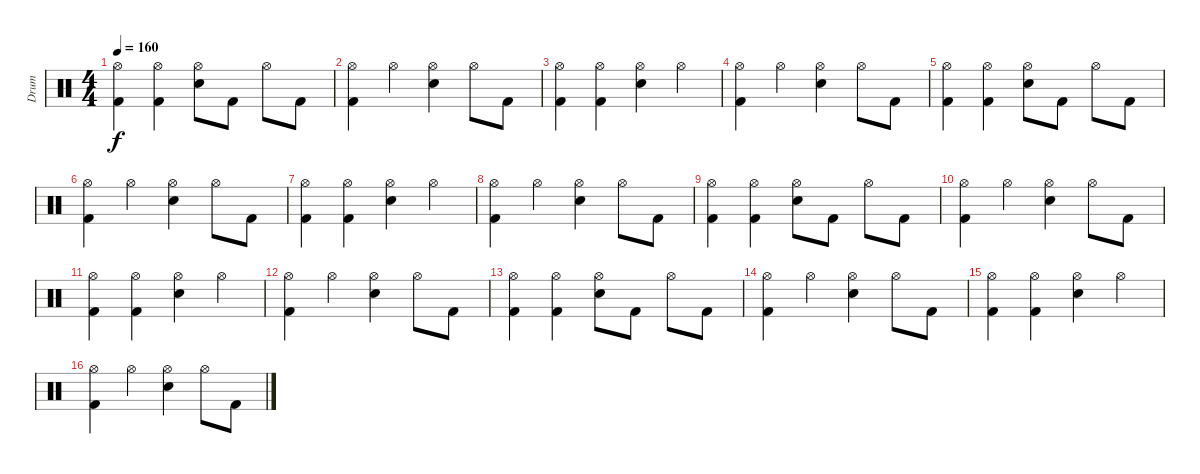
\track ("Drum" "Drum") {instrument percussion}
\staff {score}
\articulation defaults
\ts (4 4)
\tempo 160
\clef neutral
\ks c
("Hi-Hat (open)" "Kick (hit) 2").4{dy f} ("Hi-Hat (open)" "Kick (hit) 2").4 ("Hi-Hat (open)" "Electric Snare (hit)").8 "Kick (hit) 2".8 "Hi-Hat (open)".8 "Kick (hit) 2".8 |
("Hi-Hat (open)" "Kick (hit) 2").4 "Hi-Hat (open)".4 ("Hi-Hat (open)" "Electric Snare (hit)").4 "Hi-Hat (open)".8 "Kick (hit) 2".8 |
("Hi-Hat (open)" "Kick (hit) 2").4 ("Hi-Hat (open)" "Kick (hit) 2").4 ("Hi-Hat (open)" "Electric Snare (hit)").4 "Hi-Hat (open)".4 |
("Hi-Hat (open)" "Kick (hit) 2").4 "Hi-Hat (open)".4 ("Hi-Hat (open)" "Electric Snare (hit)").4 "Hi-Hat (open)".8 "Kick (hit) 2".8 |
("Hi-Hat (open)" "Kick (hit) 2").4 ("Hi-Hat (open)" "Kick (hit) 2").4 ("Hi-Hat (open)" "Electric Snare (hit)").8 "Kick (hit) 2".8 "Hi-Hat (open)".8 "Kick (hit) 2".8 |
("Hi-Hat (open)" "Kick (hit) 2").4 "Hi-Hat (open)".4 ("Hi-Hat (open)" "Electric Snare (hit)").4 "Hi-Hat (open)".8 "Kick (hit) 2".8 |
("Hi-Hat (open)" "Kick (hit) 2").4 ("Hi-Hat (open)" "Kick (hit) 2").4 ("Hi-Hat (open)" "Electric Snare (hit)").4 "Hi-Hat (open)".4 |
("Hi-Hat (open)" "Kick (hit) 2").4 "Hi-Hat (open)".4 ("Hi-Hat (open)" "Electric Snare (hit)").4 "Hi-Hat (open)".8 "Kick (hit) 2".8 |
("Hi-Hat (open)" "Kick (hit) 2").4 ("Hi-Hat (open)" "Kick (hit) 2").4 ("Hi-Hat (open)" "Electric Snare (hit)").8 "Kick (hit) 2".8 "Hi-Hat (open)".8 "Kick (hit) 2".8 |
("Hi-Hat (open)" "Kick (hit) 2").4 "Hi-Hat (open)".4 ("Hi-Hat (open)" "Electric Snare (hit)").4 "Hi-Hat (open)".8 "Kick (hit) 2".8 |
("Hi-Hat (open)" "Kick (hit) 2").4 ("Hi-Hat (open)" "Kick (hit) 2").4 ("Hi-Hat (open)" "Electric Snare (hit)").4 "Hi-Hat (open)".4 |
("Hi-Hat (open)" "Kick (hit) 2").4{volume 13} "Hi-Hat (open)".4 ("Hi-Hat (open)" "Electric Snare (hit)").4{volume 12} "Hi-Hat (open)".8 "Kick (hit) 2".8{volume 11} |
("Hi-Hat (open)" "Kick (hit) 2").4 ("Hi-Hat (open)" "Kick (hit) 2").4{volume 9} ("Hi-Hat (open)" "Electric Snare (hit)").8 "Kick (hit) 2".8{volume 8} "Hi-Hat (open)".8 "Kick (hit) 2".8 |
("Hi-Hat (open)" "Kick (hit) 2").4 "Hi-Hat (open)".4 ("Hi-Hat (open)" "Electric Snare (hit)").4{volume 7} "Hi-Hat (open)".8 "Kick (hit) 2".8 |
("Hi-Hat (open)" "Kick (hit) 2").4{volume 6} ("Hi-Hat (open)" "Kick (hit) 2").4 ("Hi-Hat (open)" "Electric Snare (hit)").4{volume 5} "Hi-Hat (open)".4{volume 4} |
("Hi-Hat (open)" "Kick (hit) 2").4{volume 3} "Hi-Hat (open)".4 ("Hi-Hat (open)" "Electric Snare (hit)").4{volume 2} "Hi-Hat (open)".8 "Kick (hit) 2".8{volume 1}
